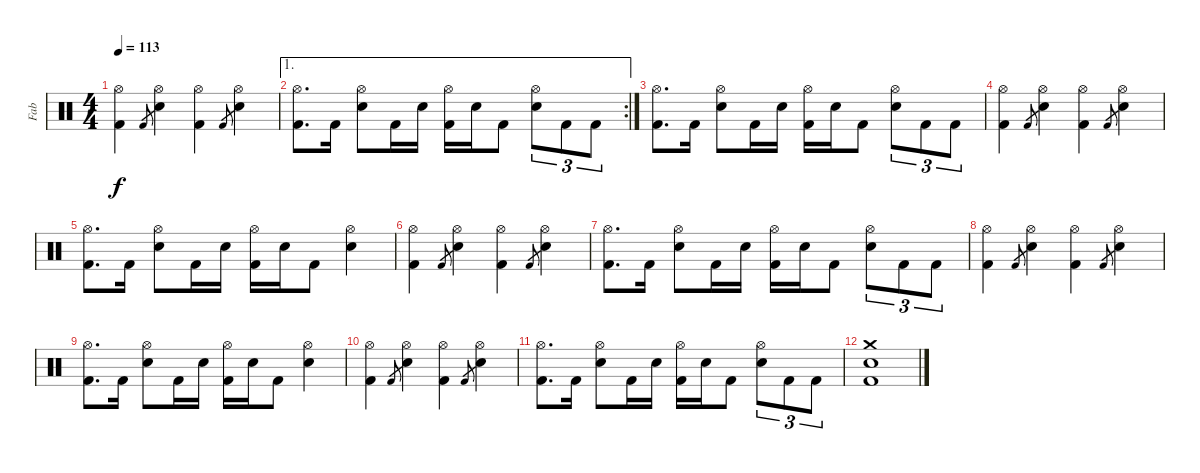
\track ("Fab" "Fab") {instrument percussion}
\staff {score}
\articulation defaults
\ts (4 4)
\tempo 113
\clef neutral
\ks c
("Hi-Hat (open)" "Kick (hit) 2").4{dy f} "Kick (hit) 2".8{gr} ("Hi-Hat (open)" "Electric Snare (hit)").4 ("Hi-Hat (open)" "Kick (hit) 2").4 "Kick (hit) 2".8{gr} ("Hi-Hat (open)" "Electric Snare (hit)").4 |
\ae 1
\rc 2
("Hi-Hat (open)" "Kick (hit) 2").8{d} "Kick (hit) 2".16 ("Hi-Hat (open)" "Electric Snare (hit)").8 "Kick (hit) 2".16 "Electric Snare (hit)".16 ("Hi-Hat (open)" "Kick (hit) 2").16 "Electric Snare (hit)".16 "Kick (hit) 2".8 ("Hi-Hat (open)" "Electric Snare (hit)").8{tu (3 2)} "Kick (hit) 2".8{tu (3 2)} "Kick (hit) 2".8{tu (3 2)} |
("Hi-Hat (open)" "Kick (hit) 2").8{d} "Kick (hit) 2".16 ("Hi-Hat (open)" "Electric Snare (hit)").8 "Kick (hit) 2".16 "Electric Snare (hit)".16 ("Hi-Hat (open)" "Kick (hit) 2").16 "Electric Snare (hit)".16 "Kick (hit) 2".8 ("Hi-Hat (open)" "Electric Snare (hit)").8{tu (3 2)} "Kick (hit) 2".8{tu (3 2)} "Kick (hit) 2".8{tu (3 2)} |
("Hi-Hat (open)" "Kick (hit) 2").4 "Kick (hit) 2".8{gr} ("Hi-Hat (open)" "Electric Snare (hit)").4 ("Hi-Hat (open)" "Kick (hit) 2").4 "Kick (hit) 2".8{gr} ("Hi-Hat (open)" "Electric Snare (hit)").4 |
("Hi-Hat (open)" "Kick (hit) 2").8{d} "Kick (hit) 2".16 ("Hi-Hat (open)" "Electric Snare (hit)").8 "Kick (hit) 2".16 "Electric Snare (hit)".16 ("Hi-Hat (open)" "Kick (hit) 2").16 "Electric Snare (hit)".16 "Kick (hit) 2".8 ("Hi-Hat (open)" "Electric Snare (hit)").4 |
("Hi-Hat (open)" "Kick (hit) 2").4 "Kick (hit) 2".8{gr} ("Hi-Hat (open)" "Electric Snare (hit)").4 ("Hi-Hat (open)" "Kick (hit) 2").4 "Kick (hit) 2".8{gr} ("Hi-Hat (open)" "Electric Snare (hit)").4 |
("Hi-Hat (open)" "Kick (hit) 2").8{d} "Kick (hit) 2".16 ("Hi-Hat (open)" "Electric Snare (hit)").8 "Kick (hit) 2".16 "Electric Snare (hit)".16 ("Hi-Hat (open)" "Kick (hit) 2").16 "Electric Snare (hit)".16 "Kick (hit) 2".8 ("Hi-Hat (open)" "Electric Snare (hit)").8{tu (3 2)} "Kick (hit) 2".8{tu (3 2)} "Kick (hit) 2".8{tu (3 2)} |
("Hi-Hat (open)" "Kick (hit) 2").4 "Kick (hit) 2".8{gr} ("Hi-Hat (open)" "Electric Snare (hit)").4 ("Hi-Hat (open)" "Kick (hit) 2").4 "Kick (hit) 2".8{gr} ("Hi-Hat (open)" "Electric Snare (hit)").4 |
("Hi-Hat (open)" "Kick (hit) 2").8{d} "Kick (hit) 2".16 ("Hi-Hat (open)" "Electric Snare (hit)").8 "Kick (hit) 2".16 "Electric Snare (hit)".16 ("Hi-Hat (open)" "Kick (hit) 2").16 "Electric Snare (hit)".16 "Kick (hit) 2".8 ("Hi-Hat (open)" "Electric Snare (hit)").4 |
("Hi-Hat (open)" "Kick (hit) 2").4 "Kick (hit) 2".8{gr} ("Hi-Hat (open)" "Electric Snare (hit)").4 ("Hi-Hat (open)" "Kick (hit) 2").4 "Kick (hit) 2".8{gr} ("Hi-Hat (open)" "Electric Snare (hit)").4 |
("Hi-Hat (open)" "Kick (hit) 2").8{d} "Kick (hit) 2".16 ("Hi-Hat (open)" "Electric Snare (hit)").8 "Kick (hit) 2".16 "Electric Snare (hit)".16 ("Hi-Hat (open)" "Kick (hit) 2").16 "Electric Snare (hit)".16 "Kick (hit) 2".8 ("Hi-Hat (open)" "Electric Snare (hit)").8{tu (3 2)} "Kick (hit) 2".8{tu (3 2)} "Kick (hit) 2".8{tu (3 2)} |
("Crash medium (hit)" "Electric Snare (hit)" "Kick (hit) 2").1
